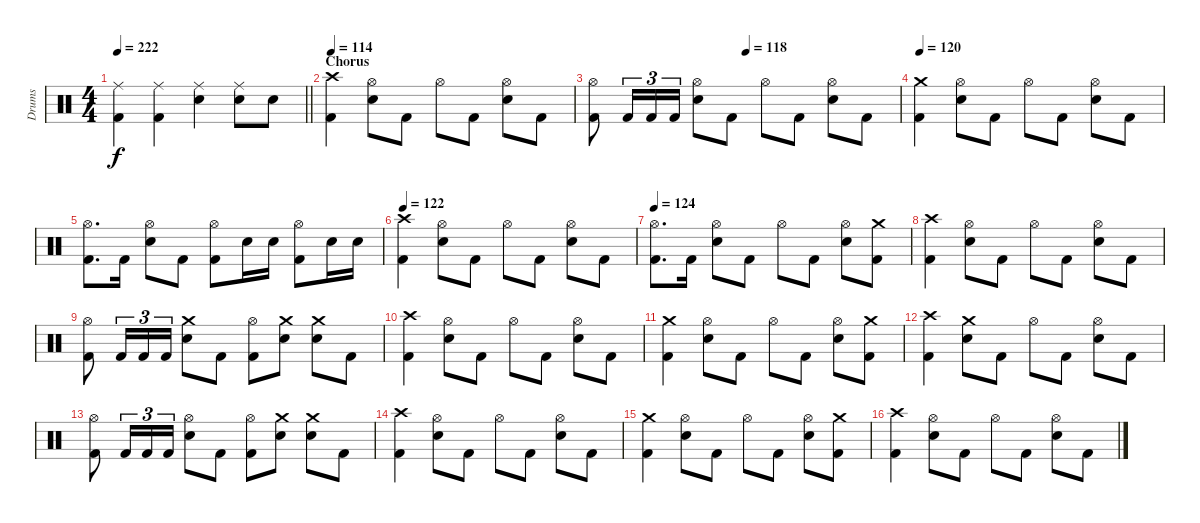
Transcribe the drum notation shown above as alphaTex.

\track ("Drums" "Drums") {instrument percussion}
\staff {score}
\articulation defaults
\ts (4 4)
\tempo 222
\clef neutral
\barLineRight lightlight
\ks c
("Ride (middle)" "Kick (hit) 2").4{dy f} ("Ride (middle)" "Kick (hit) 2").4 ("Ride (middle)" "Snare (hit) 2").4 ("Ride (middle)" "Snare (hit) 2").8 "Snare (hit) 2".8 |
\section ("" "Chorus")
\tempo 114
("Crash high (hit)" "Kick (hit) 2").4 ("Hi-Hat (open)" "Snare (hit) 2").8 "Kick (hit) 2".8 "Hi-Hat (open)".8 "Kick (hit) 2".8 ("Hi-Hat (open)" "Snare (hit) 2").8 "Kick (hit) 2".8 |
\tempo (118 0.5)
("Hi-Hat (open)" "Kick (hit) 2").8 "Kick (hit) 2".16{tu (3 2)} "Kick (hit) 2".16{tu (3 2)} "Kick (hit) 2".16{tu (3 2)} ("Hi-Hat (open)" "Snare (hit) 2").8 "Kick (hit) 2".8 "Hi-Hat (open)".8 "Kick (hit) 2".8 ("Hi-Hat (open)" "Snare (hit) 2").8 "Kick (hit) 2".8 |
\tempo 120
("Crash medium (hit)" "Kick (hit) 2").4 ("Hi-Hat (open)" "Snare (hit) 2").8 "Kick (hit) 2".8 "Hi-Hat (open)".8 "Kick (hit) 2".8 ("Hi-Hat (open)" "Snare (hit) 2").8 "Kick (hit) 2".8 |
("Hi-Hat (open)" "Kick (hit) 2").8{d} "Kick (hit) 2".16 ("Hi-Hat (open)" "Snare (hit) 2").8 "Kick (hit) 2".8 ("Hi-Hat (open)" "Kick (hit) 2").8 "Snare (hit) 2".16 "Snare (hit) 2".16 ("Hi-Hat (open)" "Kick (hit) 2").8 "Snare (hit) 2".16 "Snare (hit) 2".16 |
\tempo 122
("Crash high (hit)" "Kick (hit) 2").4 ("Hi-Hat (open)" "Snare (hit) 2").8 "Kick (hit) 2".8 "Hi-Hat (open)".8 "Kick (hit) 2".8 ("Hi-Hat (open)" "Snare (hit) 2").8 "Kick (hit) 2".8 |
\tempo 124
("Hi-Hat (open)" "Kick (hit) 2").8{d} "Kick (hit) 2".16 ("Hi-Hat (open)" "Snare (hit) 2").8 "Kick (hit) 2".8 "Hi-Hat (open)".8 "Kick (hit) 2".8 ("Hi-Hat (open)" "Snare (hit) 2").8 ("Crash medium (hit)" "Kick (hit) 2").8 |
("Crash high (hit)" "Kick (hit) 2").4 ("Hi-Hat (open)" "Snare (hit) 2").8 "Kick (hit) 2".8 "Hi-Hat (open)".8 "Kick (hit) 2".8 ("Hi-Hat (open)" "Snare (hit) 2").8 "Kick (hit) 2".8 |
("Hi-Hat (open)" "Kick (hit) 2").8 "Kick (hit) 2".16{tu (3 2)} "Kick (hit) 2".16{tu (3 2)} "Kick (hit) 2".16{tu (3 2)} ("Crash medium (hit)" "Snare (hit) 2").8 "Kick (hit) 2".8 ("Hi-Hat (open)" "Kick (hit) 2").8 ("Crash medium (hit)" "Snare (hit) 2").8 ("Crash medium (hit)" "Snare (hit) 2").8 "Kick (hit) 2".8 |
("Crash high (hit)" "Kick (hit) 2").4 ("Hi-Hat (open)" "Snare (hit) 2").8 "Kick (hit) 2".8 "Hi-Hat (open)".8 "Kick (hit) 2".8 ("Hi-Hat (open)" "Snare (hit) 2").8 "Kick (hit) 2".8 |
("Crash medium (hit)" "Kick (hit) 2").4 ("Hi-Hat (open)" "Snare (hit) 2").8 "Kick (hit) 2".8 "Hi-Hat (open)".8 "Kick (hit) 2".8 ("Hi-Hat (open)" "Snare (hit) 2").8 ("Crash medium (hit)" "Kick (hit) 2").8 |
("Crash high (hit)" "Kick (hit) 2").4 ("Crash medium (hit)" "Snare (hit) 2").8 "Kick (hit) 2".8 "Hi-Hat (open)".8 "Kick (hit) 2".8 ("Hi-Hat (open)" "Snare (hit) 2").8 "Kick (hit) 2".8 |
("Hi-Hat (open)" "Kick (hit) 2").8 "Kick (hit) 2".16{tu (3 2)} "Kick (hit) 2".16{tu (3 2)} "Kick (hit) 2".16{tu (3 2)} ("Hi-Hat (open)" "Snare (hit) 2").8 "Kick (hit) 2".8 ("Hi-Hat (open)" "Kick (hit) 2").8 ("Crash medium (hit)" "Snare (hit) 2").8 ("Crash medium (hit)" "Snare (hit) 2").8 "Kick (hit) 2".8 |
("Crash high (hit)" "Kick (hit) 2").4 ("Hi-Hat (open)" "Snare (hit) 2").8 "Kick (hit) 2".8 "Hi-Hat (open)".8 "Kick (hit) 2".8 ("Hi-Hat (open)" "Snare (hit) 2").8 "Kick (hit) 2".8 |
("Crash medium (hit)" "Kick (hit) 2").4 ("Hi-Hat (open)" "Snare (hit) 2").8 "Kick (hit) 2".8 "Hi-Hat (open)".8 "Kick (hit) 2".8 ("Hi-Hat (open)" "Snare (hit) 2").8 ("Crash medium (hit)" "Kick (hit) 2").8 |
("Crash high (hit)" "Kick (hit) 2").4 ("Hi-Hat (open)" "Snare (hit) 2").8 "Kick (hit) 2".8 "Hi-Hat (open)".8 "Kick (hit) 2".8 ("Hi-Hat (open)" "Snare (hit) 2").8 "Kick (hit) 2".8
